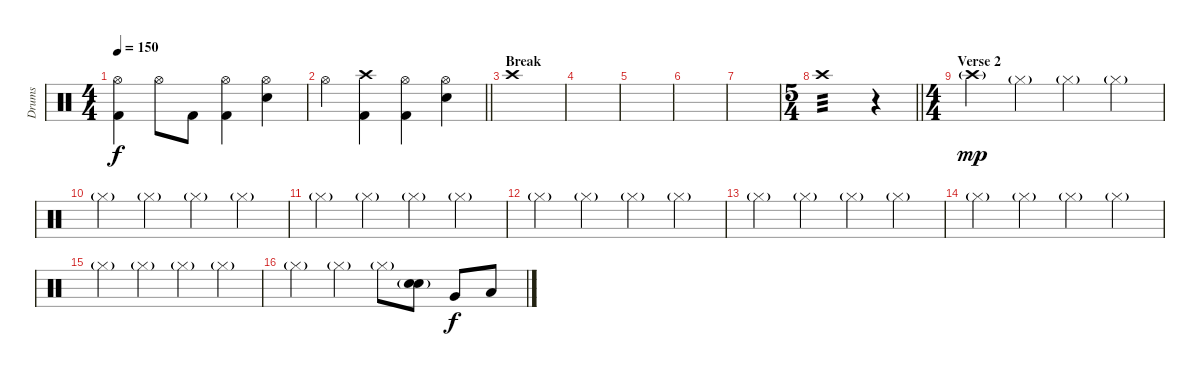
\track ("Drums" "Drums") {instrument percussion}
\staff {score}
\articulation defaults
\ts (4 4)
\tempo 150
\clef neutral
\ks c
("Kick (hit) 2" "Hi-Hat (open)").4{dy f} "Hi-Hat (open)".8 "Kick (hit) 2".8 ("Kick (hit) 2" "Hi-Hat (open)").4 ("Hi-Hat (open)" "Snare (hit) 2").4 |
\barLineRight lightlight "Hi-Hat (open)".4
("Kick (hit) 2" "Crash high (hit)").4 ("Kick (hit) 2" "Hi-Hat (open)").4 ("Hi-Hat (open)" "Snare (hit) 2").4 |
\section ("" "Break")
"Crash high (hit)".1 |
|
|
|
|
\ts (5 4)
\barLineRight lightlight "Crash high (hit)".1{tp 3 volume 16}
r.4 |
\ts (4 4)
\section ("" "Verse 2")
"Crash high (hit)"{g}.4{dy mp volume 6} "Hi-Hat (closed)"{g}.4 "Hi-Hat (closed)"{g}.4 "Hi-Hat (closed)"{g}.4 |
"Hi-Hat (closed)"{g}.4 "Hi-Hat (closed)"{g}.4 "Hi-Hat (closed)"{g}.4 "Hi-Hat (closed)"{g}.4 |
"Hi-Hat (closed)"{g}.4 "Hi-Hat (closed)"{g}.4 "Hi-Hat (closed)"{g}.4 "Hi-Hat (closed)"{g}.4 |
"Hi-Hat (closed)"{g}.4 "Hi-Hat (closed)"{g}.4 "Hi-Hat (closed)"{g}.4 "Hi-Hat (closed)"{g}.4 |
"Hi-Hat (closed)"{g}.4 "Hi-Hat (closed)"{g}.4 "Hi-Hat (closed)"{g}.4 "Hi-Hat (closed)"{g}.4 |
"Hi-Hat (closed)"{g}.4 "Hi-Hat (closed)"{g}.4 "Hi-Hat (closed)"{g}.4 "Hi-Hat (closed)"{g}.4 |
"Hi-Hat (closed)"{g}.4 "Hi-Hat (closed)"{g}.4 "Hi-Hat (closed)"{g}.4 "Hi-Hat (closed)"{g}.4 |
"Hi-Hat (closed)"{g}.4 "Hi-Hat (closed)"{g}.4 "Hi-Hat (closed)"{g}.8 ("Electric Snare (hit)" "Hand Clap (hit)"{g}).8 "Very Low Tom (hit)".8{dy f} "Low Floor Tom (hit)".8
